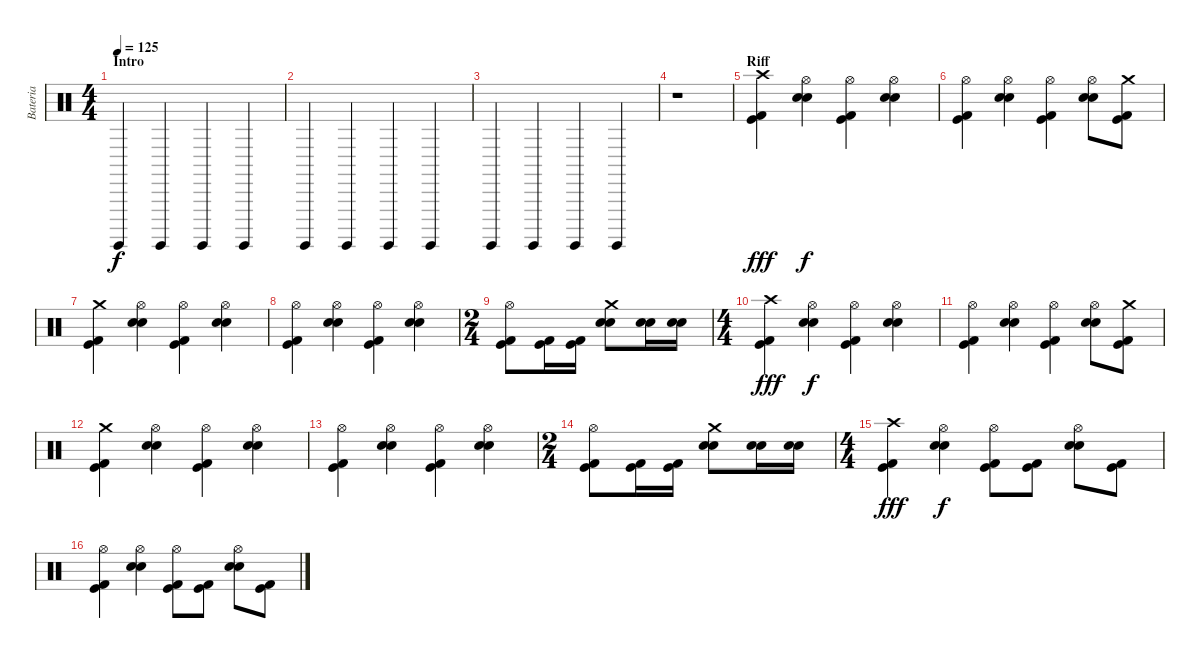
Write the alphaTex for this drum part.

\track ("Bateria" "Bateria") {instrument percussion}
\staff {score}
\articulation defaults
\ts (4 4)
\section ("" "Intro")
\tempo 125
\clef neutral
\ks c "Surdo (hit)".4{dy f} "Surdo (hit)".4 "Surdo (hit)".4 "Surdo (hit)".4
|
"Surdo (hit)".4 "Surdo (hit)".4 "Surdo (hit)".4 "Surdo (hit)".4 |
"Surdo (hit)".4 "Surdo (hit)".4 "Surdo (hit)".4 "Surdo (hit)".4 |
r.1 |
\section ("" "Riff")
("Crash high (hit)" "Kick (hit) 2" "Kick (hit)").4{dy fff} ("Hi-Hat (open)" "Electric Snare (hit)" "Snare (hit) 2").4{dy f} ("Hi-Hat (open)" "Kick (hit) 2" "Kick (hit)").4 ("Hi-Hat (open)" "Electric Snare (hit)" "Snare (hit) 2").4 |
("Hi-Hat (open)" "Kick (hit) 2" "Kick (hit)").4 ("Hi-Hat (open)" "Electric Snare (hit)" "Snare (hit) 2").4 ("Hi-Hat (open)" "Kick (hit) 2" "Kick (hit)").4 ("Hi-Hat (open)" "Electric Snare (hit)" "Snare (hit) 2").8 ("Crash medium (hit)" "Kick (hit) 2" "Kick (hit)").8 |
("Crash medium (hit)" "Kick (hit) 2" "Kick (hit)").4 ("Hi-Hat (open)" "Electric Snare (hit)" "Snare (hit) 2").4 ("Hi-Hat (open)" "Kick (hit) 2" "Kick (hit)").4 ("Hi-Hat (open)" "Electric Snare (hit)" "Snare (hit) 2").4 |
("Hi-Hat (open)" "Kick (hit) 2" "Kick (hit)").4 ("Hi-Hat (open)" "Electric Snare (hit)" "Snare (hit) 2").4 ("Hi-Hat (open)" "Kick (hit) 2" "Kick (hit)").4 ("Hi-Hat (open)" "Electric Snare (hit)" "Snare (hit) 2").4 |
\ts (2 4)
("Hi-Hat (open)" "Kick (hit) 2" "Kick (hit)").8 ("Kick (hit) 2" "Kick (hit)").16 ("Kick (hit) 2" "Kick (hit)").16 ("Crash medium (hit)" "Electric Snare (hit)" "Snare (hit) 2").8 ("Electric Snare (hit)" "Snare (hit) 2").16 ("Electric Snare (hit)" "Snare (hit) 2").16 |
\ts (4 4)
("Crash high (hit)" "Kick (hit) 2" "Kick (hit)").4{dy fff} ("Hi-Hat (open)" "Electric Snare (hit)" "Snare (hit) 2").4{dy f} ("Hi-Hat (open)" "Kick (hit) 2" "Kick (hit)").4 ("Hi-Hat (open)" "Electric Snare (hit)" "Snare (hit) 2").4 |
("Hi-Hat (open)" "Kick (hit) 2" "Kick (hit)").4 ("Hi-Hat (open)" "Electric Snare (hit)" "Snare (hit) 2").4 ("Hi-Hat (open)" "Kick (hit) 2" "Kick (hit)").4 ("Hi-Hat (open)" "Electric Snare (hit)" "Snare (hit) 2").8 ("Crash medium (hit)" "Kick (hit) 2" "Kick (hit)").8 |
("Crash medium (hit)" "Kick (hit) 2" "Kick (hit)").4 ("Hi-Hat (open)" "Electric Snare (hit)" "Snare (hit) 2").4 ("Hi-Hat (open)" "Kick (hit) 2" "Kick (hit)").4 ("Hi-Hat (open)" "Electric Snare (hit)" "Snare (hit) 2").4 |
("Hi-Hat (open)" "Kick (hit) 2" "Kick (hit)").4 ("Hi-Hat (open)" "Electric Snare (hit)" "Snare (hit) 2").4 ("Hi-Hat (open)" "Kick (hit) 2" "Kick (hit)").4 ("Hi-Hat (open)" "Electric Snare (hit)" "Snare (hit) 2").4 |
\ts (2 4)
("Hi-Hat (open)" "Kick (hit) 2" "Kick (hit)").8 ("Kick (hit) 2" "Kick (hit)").16 ("Kick (hit) 2" "Kick (hit)").16 ("Crash medium (hit)" "Electric Snare (hit)" "Snare (hit) 2").8 ("Electric Snare (hit)" "Snare (hit) 2").16 ("Electric Snare (hit)" "Snare (hit) 2").16 |
\ts (4 4)
("Crash high (hit)" "Kick (hit) 2" "Kick (hit)").4{dy fff} ("Hi-Hat (open)" "Electric Snare (hit)" "Snare (hit) 2").4{dy f} ("Hi-Hat (open)" "Kick (hit) 2" "Kick (hit)").8 ("Kick (hit) 2" "Kick (hit)").8 ("Hi-Hat (open)" "Electric Snare (hit)" "Snare (hit) 2").8 ("Kick (hit) 2" "Kick (hit)").8 |
("Hi-Hat (open)" "Kick (hit) 2" "Kick (hit)").4 ("Hi-Hat (open)" "Electric Snare (hit)" "Snare (hit) 2").4 ("Hi-Hat (open)" "Kick (hit) 2" "Kick (hit)").8 ("Kick (hit) 2" "Kick (hit)").8 ("Hi-Hat (open)" "Electric Snare (hit)" "Snare (hit) 2").8 ("Kick (hit) 2" "Kick (hit)").8
